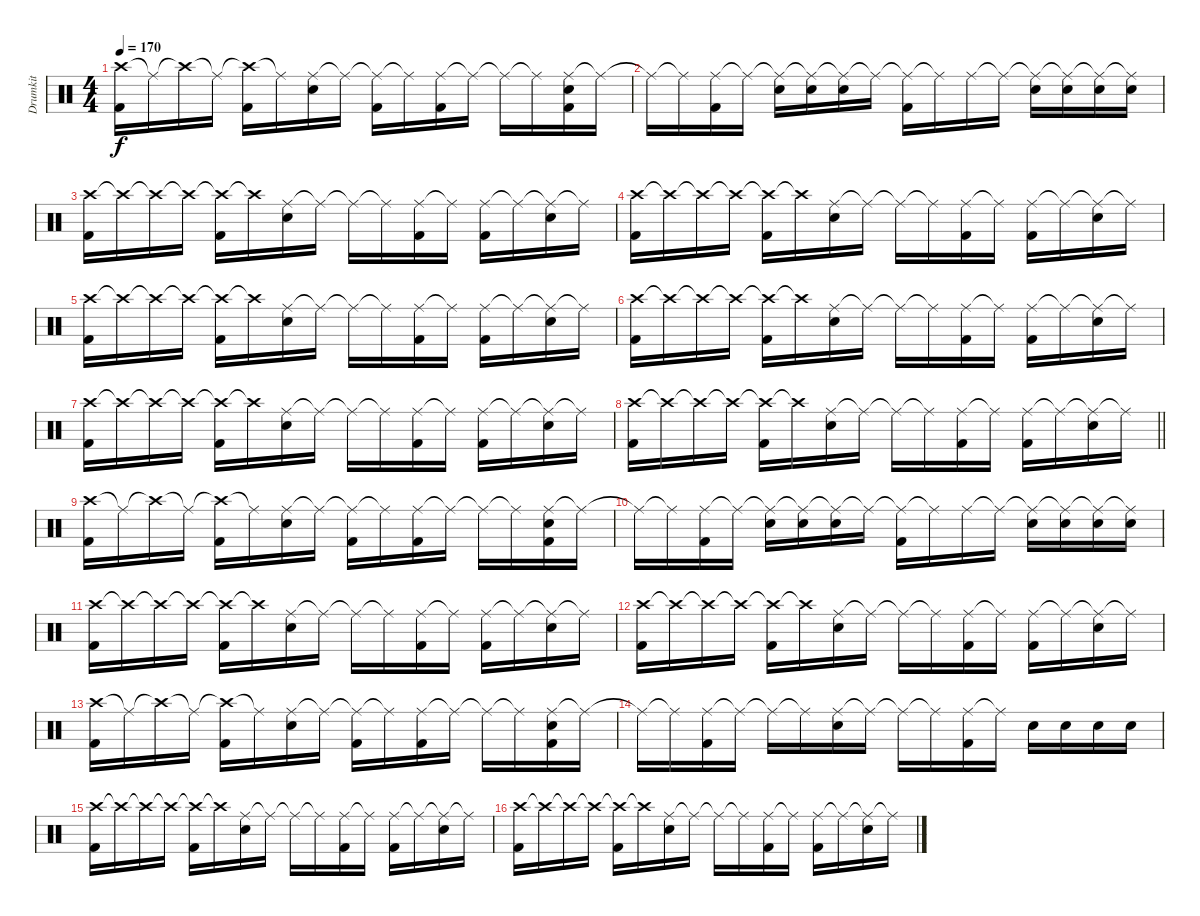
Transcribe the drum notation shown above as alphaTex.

\track ("Drumkit" "Drumkit") {instrument percussion}
\staff {score}
\articulation defaults
\ts (4 4)
\tempo 170
\clef neutral
\ks c
("Crash high (hit)" "Kick (hit) 2").16{dy f} "Ride (middle)"{t}.16 "Crash high (hit)"{t}.16 "Ride (middle)"{t}.16 ("Crash high (hit)"{t} "Kick (hit) 2").16 "Ride (middle)"{t}.16 ("Ride (middle)" "Snare (hit) 2").16 "Ride (middle)"{t}.16 ("Ride (middle)"{t} "Kick (hit) 2").16 "Ride (middle)"{t}.16 ("Ride (middle)" "Kick (hit) 2").16 "Ride (middle)"{t}.16 "Ride (middle)"{t}.16 "Ride (middle)"{t}.16 ("Ride (middle)" "Snare (hit) 2" "Kick (hit) 2").16 "Ride (middle)"{t}.16 |
"Ride (middle)"{t}.16 "Ride (middle)"{t}.16 ("Ride (middle)" "Kick (hit) 2").16 "Ride (middle)"{t}.16 ("Ride (middle)"{t} "Snare (hit) 2").16 ("Ride (middle)"{t} "Snare (hit) 2").16 ("Ride (middle)"{t} "Snare (hit) 2").16 "Ride (middle)"{t}.16 ("Ride (middle)"{t} "Kick (hit) 2").16 "Ride (middle)"{t}.16 "Ride (middle)".16 "Ride (middle)"{t}.16 ("Ride (middle)"{t} "Snare (hit) 2").16 ("Ride (middle)"{t} "Snare (hit) 2").16 ("Ride (middle)"{t} "Snare (hit) 2").16 ("Ride (middle)"{t} "Snare (hit) 2").16 |
("Crash high (hit)" "Kick (hit) 2").16 "Crash high (hit)"{t}.16 "Crash high (hit)"{t}.16 "Crash high (hit)"{t}.16 ("Crash high (hit)"{t} "Kick (hit) 2").16 "Crash high (hit)"{t}.16 ("Ride (middle)" "Snare (hit) 2").16 "Ride (middle)"{t}.16 "Ride (middle)"{t}.16 "Ride (middle)"{t}.16 ("Ride (middle)" "Kick (hit) 2").16 "Ride (middle)"{t}.16 ("Ride (middle)" "Kick (hit) 2").16 "Ride (middle)"{t}.16 ("Ride (middle)"{t} "Snare (hit) 2").16 "Ride (middle)"{t}.16 |
("Crash high (hit)" "Kick (hit) 2").16 "Crash high (hit)"{t}.16 "Crash high (hit)"{t}.16 "Crash high (hit)"{t}.16 ("Crash high (hit)"{t} "Kick (hit) 2").16 "Crash high (hit)"{t}.16 ("Ride (middle)" "Snare (hit) 2").16 "Ride (middle)"{t}.16 "Ride (middle)"{t}.16 "Ride (middle)"{t}.16 ("Ride (middle)" "Kick (hit) 2").16 "Ride (middle)"{t}.16 ("Ride (middle)" "Kick (hit) 2").16 "Ride (middle)"{t}.16 ("Ride (middle)"{t} "Snare (hit) 2").16 "Ride (middle)"{t}.16 |
("Crash high (hit)" "Kick (hit) 2").16 "Crash high (hit)"{t}.16 "Crash high (hit)"{t}.16 "Crash high (hit)"{t}.16 ("Crash high (hit)"{t} "Kick (hit) 2").16 "Crash high (hit)"{t}.16 ("Ride (middle)" "Snare (hit) 2").16 "Ride (middle)"{t}.16 "Ride (middle)"{t}.16 "Ride (middle)"{t}.16 ("Ride (middle)" "Kick (hit) 2").16 "Ride (middle)"{t}.16 ("Ride (middle)" "Kick (hit) 2").16 "Ride (middle)"{t}.16 ("Ride (middle)"{t} "Snare (hit) 2").16 "Ride (middle)"{t}.16 |
("Crash high (hit)" "Kick (hit) 2").16 "Crash high (hit)"{t}.16 "Crash high (hit)"{t}.16 "Crash high (hit)"{t}.16 ("Crash high (hit)"{t} "Kick (hit) 2").16 "Crash high (hit)"{t}.16 ("Ride (middle)" "Snare (hit) 2").16 "Ride (middle)"{t}.16 "Ride (middle)"{t}.16 "Ride (middle)"{t}.16 ("Ride (middle)" "Kick (hit) 2").16 "Ride (middle)"{t}.16 ("Ride (middle)" "Kick (hit) 2").16 "Ride (middle)"{t}.16 ("Ride (middle)"{t} "Snare (hit) 2").16 "Ride (middle)"{t}.16 |
("Crash high (hit)" "Kick (hit) 2").16 "Crash high (hit)"{t}.16 "Crash high (hit)"{t}.16 "Crash high (hit)"{t}.16 ("Crash high (hit)"{t} "Kick (hit) 2").16 "Crash high (hit)"{t}.16 ("Ride (middle)" "Snare (hit) 2").16 "Ride (middle)"{t}.16 "Ride (middle)"{t}.16 "Ride (middle)"{t}.16 ("Ride (middle)" "Kick (hit) 2").16 "Ride (middle)"{t}.16 ("Ride (middle)" "Kick (hit) 2").16 "Ride (middle)"{t}.16 ("Ride (middle)"{t} "Snare (hit) 2").16 "Ride (middle)"{t}.16 |
\barLineRight lightlight
("Crash high (hit)" "Kick (hit) 2").16 "Crash high (hit)"{t}.16 "Crash high (hit)"{t}.16 "Crash high (hit)"{t}.16 ("Crash high (hit)"{t} "Kick (hit) 2").16 "Crash high (hit)"{t}.16 ("Ride (middle)" "Snare (hit) 2").16 "Ride (middle)"{t}.16 "Ride (middle)"{t}.16 "Ride (middle)"{t}.16 ("Ride (middle)" "Kick (hit) 2").16 "Ride (middle)"{t}.16 ("Ride (middle)" "Kick (hit) 2").16 "Ride (middle)"{t}.16 ("Ride (middle)"{t} "Snare (hit) 2").16 "Ride (middle)"{t}.16 |
("Crash high (hit)" "Kick (hit) 2").16 "Ride (middle)"{t}.16 "Crash high (hit)"{t}.16 "Ride (middle)"{t}.16 ("Crash high (hit)"{t} "Kick (hit) 2").16 "Ride (middle)"{t}.16 ("Ride (middle)" "Snare (hit) 2").16 "Ride (middle)"{t}.16 ("Ride (middle)"{t} "Kick (hit) 2").16 "Ride (middle)"{t}.16 ("Ride (middle)" "Kick (hit) 2").16 "Ride (middle)"{t}.16 "Ride (middle)"{t}.16 "Ride (middle)"{t}.16 ("Ride (middle)" "Snare (hit) 2" "Kick (hit) 2").16 "Ride (middle)"{t}.16 |
"Ride (middle)"{t}.16 "Ride (middle)"{t}.16 ("Ride (middle)" "Kick (hit) 2").16 "Ride (middle)"{t}.16 ("Ride (middle)"{t} "Snare (hit) 2").16 ("Ride (middle)"{t} "Snare (hit) 2").16 ("Ride (middle)"{t} "Snare (hit) 2").16 "Ride (middle)"{t}.16 ("Ride (middle)"{t} "Kick (hit) 2").16 "Ride (middle)"{t}.16 "Ride (middle)".16 "Ride (middle)"{t}.16 ("Ride (middle)"{t} "Snare (hit) 2").16 ("Ride (middle)"{t} "Snare (hit) 2").16 ("Ride (middle)"{t} "Snare (hit) 2").16 ("Ride (middle)"{t} "Snare (hit) 2").16 |
("Crash high (hit)" "Kick (hit) 2").16 "Crash high (hit)"{t}.16 "Crash high (hit)"{t}.16 "Crash high (hit)"{t}.16 ("Crash high (hit)"{t} "Kick (hit) 2").16 "Crash high (hit)"{t}.16 ("Ride (middle)" "Snare (hit) 2").16 "Ride (middle)"{t}.16 "Ride (middle)"{t}.16 "Ride (middle)"{t}.16 ("Ride (middle)" "Kick (hit) 2").16 "Ride (middle)"{t}.16 ("Ride (middle)" "Kick (hit) 2").16 "Ride (middle)"{t}.16 ("Ride (middle)"{t} "Snare (hit) 2").16 "Ride (middle)"{t}.16 |
("Crash high (hit)" "Kick (hit) 2").16 "Crash high (hit)"{t}.16 "Crash high (hit)"{t}.16 "Crash high (hit)"{t}.16 ("Crash high (hit)"{t} "Kick (hit) 2").16 "Crash high (hit)"{t}.16 ("Ride (middle)" "Snare (hit) 2").16 "Ride (middle)"{t}.16 "Ride (middle)"{t}.16 "Ride (middle)"{t}.16 ("Ride (middle)" "Kick (hit) 2").16 "Ride (middle)"{t}.16 ("Ride (middle)" "Kick (hit) 2").16 "Ride (middle)"{t}.16 ("Ride (middle)"{t} "Snare (hit) 2").16 "Ride (middle)"{t}.16 |
("Crash high (hit)" "Kick (hit) 2").16 "Ride (middle)"{t}.16 "Crash high (hit)"{t}.16 "Ride (middle)"{t}.16 ("Crash high (hit)"{t} "Kick (hit) 2").16 "Ride (middle)"{t}.16 ("Ride (middle)" "Snare (hit) 2").16 "Ride (middle)"{t}.16 ("Ride (middle)"{t} "Kick (hit) 2").16 "Ride (middle)"{t}.16 ("Ride (middle)" "Kick (hit) 2").16 "Ride (middle)"{t}.16 "Ride (middle)"{t}.16 "Ride (middle)"{t}.16 ("Ride (middle)" "Snare (hit) 2" "Kick (hit) 2").16 "Ride (middle)"{t}.16 |
"Ride (middle)"{t}.16 "Ride (middle)"{t}.16 ("Ride (middle)" "Kick (hit) 2").16 "Ride (middle)"{t}.16 "Ride (middle)"{t}.16 "Ride (middle)"{t}.16 ("Ride (middle)" "Snare (hit) 2").16 "Ride (middle)"{t}.16 "Ride (middle)"{t}.16 "Ride (middle)"{t}.16 ("Ride (middle)" "Kick (hit) 2").16 "Ride (middle)"{t}.16 "Snare (hit) 2".16 "Snare (hit) 2".16 "Snare (hit) 2".16 "Snare (hit) 2".16 |
("Crash high (hit)" "Kick (hit) 2").16 "Crash high (hit)"{t}.16 "Crash high (hit)"{t}.16 "Crash high (hit)"{t}.16 ("Crash high (hit)"{t} "Kick (hit) 2").16 "Crash high (hit)"{t}.16 ("Ride (middle)" "Snare (hit) 2").16 "Ride (middle)"{t}.16 "Ride (middle)"{t}.16 "Ride (middle)"{t}.16 ("Ride (middle)" "Kick (hit) 2").16 "Ride (middle)"{t}.16 ("Ride (middle)" "Kick (hit) 2").16 "Ride (middle)"{t}.16 ("Ride (middle)"{t} "Snare (hit) 2").16 "Ride (middle)"{t}.16 |
("Crash high (hit)" "Kick (hit) 2").16 "Crash high (hit)"{t}.16 "Crash high (hit)"{t}.16 "Crash high (hit)"{t}.16 ("Crash high (hit)"{t} "Kick (hit) 2").16 "Crash high (hit)"{t}.16 ("Ride (middle)" "Snare (hit) 2").16 "Ride (middle)"{t}.16 "Ride (middle)"{t}.16 "Ride (middle)"{t}.16 ("Ride (middle)" "Kick (hit) 2").16 "Ride (middle)"{t}.16 ("Ride (middle)" "Kick (hit) 2").16 "Ride (middle)"{t}.16 ("Ride (middle)"{t} "Snare (hit) 2").16 "Ride (middle)"{t}.16
